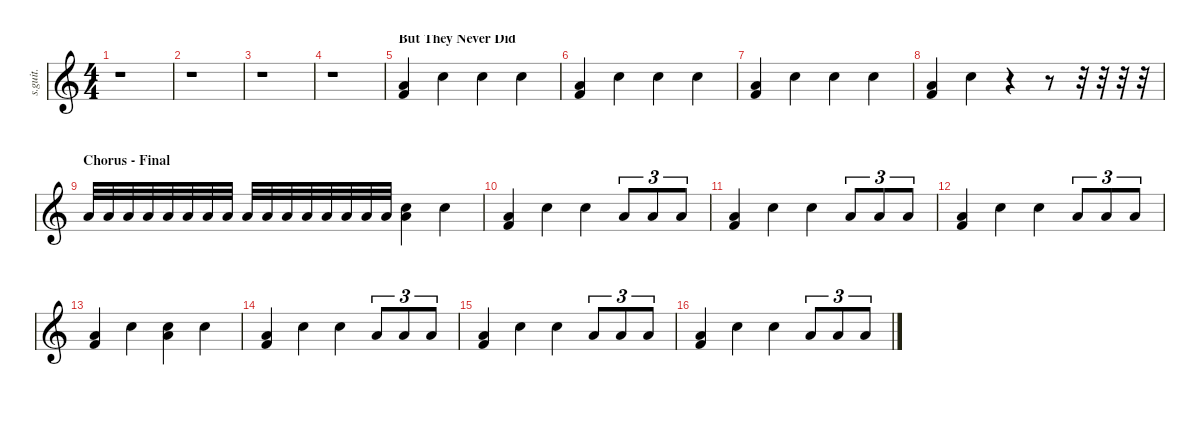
\defaultSystemsLayout 4
\hideDynamics
\bracketExtendMode nobrackets
\track ("Daniel Platzman - Drums" "s.guit.") {instrument percussion}
\staff {score}
\articulation defaults
\ts (4 4)
\tempo (125 hide)
\clef g2
\ks c
r.1{dy f} |
r.1 |
r.1 |
r.1 |
\section ("" "But They Never Did")
("Low Floor Tom (hit)" "Kick (hit) 2").4{lyrics (0 "") lyrics (1 "") lyrics (2 "") lyrics (3 "") lyrics (4 "")} "Hand Clap (hit)".4{lyrics (0 "") lyrics (1 "") lyrics (2 "") lyrics (3 "") lyrics (4 "")} "Electric Snare (hit)".4{lyrics (0 "") lyrics (1 "") lyrics (2 "") lyrics (3 "") lyrics (4 "")} "Hand Clap (hit)".4{lyrics (0 "") lyrics (1 "") lyrics (2 "") lyrics (3 "") lyrics (4 "")} |
("Low Floor Tom (hit)" "Kick (hit) 2").4{lyrics (0 "") lyrics (1 "") lyrics (2 "") lyrics (3 "") lyrics (4 "")} "Hand Clap (hit)".4{lyrics (0 "") lyrics (1 "") lyrics (2 "") lyrics (3 "") lyrics (4 "")} "Electric Snare (hit)".4{lyrics (0 "") lyrics (1 "") lyrics (2 "") lyrics (3 "") lyrics (4 "")} "Hand Clap (hit)".4{lyrics (0 "") lyrics (1 "") lyrics (2 "") lyrics (3 "") lyrics (4 "")} |
("Low Floor Tom (hit)" "Kick (hit) 2").4{lyrics (0 "") lyrics (1 "") lyrics (2 "") lyrics (3 "") lyrics (4 "")} "Hand Clap (hit)".4{lyrics (0 "") lyrics (1 "") lyrics (2 "") lyrics (3 "") lyrics (4 "")} "Electric Snare (hit)".4{lyrics (0 "") lyrics (1 "") lyrics (2 "") lyrics (3 "") lyrics (4 "")} "Hand Clap (hit)".4{lyrics (0 "") lyrics (1 "") lyrics (2 "") lyrics (3 "") lyrics (4 "")} |
("Low Floor Tom (hit)" "Kick (hit) 2").4{lyrics (0 "") lyrics (1 "") lyrics (2 "") lyrics (3 "") lyrics (4 "")} "Hand Clap (hit)".4{lyrics (0 "") lyrics (1 "") lyrics (2 "") lyrics (3 "") lyrics (4 "")} r.4 r.8 r.32 r.32 r.32 r.32 |
\section ("" "Chorus - Final")
"Low Floor Tom (hit)".32{lyrics (0 "") lyrics (1 "") lyrics (2 "") lyrics (3 "") lyrics (4 "") dy ppp} "Low Floor Tom (hit)".32{lyrics (0 "") lyrics (1 "") lyrics (2 "") lyrics (3 "") lyrics (4 "")} "Low Floor Tom (hit)".32{lyrics (0 "") lyrics (1 "") lyrics (2 "") lyrics (3 "") lyrics (4 "")} "Low Floor Tom (hit)".32{lyrics (0 "") lyrics (1 "") lyrics (2 "") lyrics (3 "") lyrics (4 "")} "Low Floor Tom (hit)".32{lyrics (0 "") lyrics (1 "") lyrics (2 "") lyrics (3 "") lyrics (4 "") dy pp} "Low Floor Tom (hit)".32{lyrics (0 "") lyrics (1 "") lyrics (2 "") lyrics (3 "") lyrics (4 "")} "Low Floor Tom (hit)".32{lyrics (0 "") lyrics (1 "") lyrics (2 "") lyrics (3 "") lyrics (4 "")} "Low Floor Tom (hit)".32{lyrics (0 "") lyrics (1 "") lyrics (2 "") lyrics (3 "") lyrics (4 "")} "Low Floor Tom (hit)".32{lyrics (0 "") lyrics (1 "") lyrics (2 "") lyrics (3 "") lyrics (4 "") dy p} "Low Floor Tom (hit)".32{lyrics (0 "") lyrics (1 "") lyrics (2 "") lyrics (3 "") lyrics (4 "")} "Low Floor Tom (hit)".32{lyrics (0 "") lyrics (1 "") lyrics (2 "") lyrics (3 "") lyrics (4 "") dy mp} "Low Floor Tom (hit)".32{lyrics (0 "") lyrics (1 "") lyrics (2 "") lyrics (3 "") lyrics (4 "")} "Low Floor Tom (hit)".32{lyrics (0 "") lyrics (1 "") lyrics (2 "") lyrics (3 "") lyrics (4 "") dy mf} "Low Floor Tom (hit)".32{lyrics (0 "") lyrics (1 "") lyrics (2 "") lyrics (3 "") lyrics (4 "") dy f} "Low Floor Tom (hit)".32{lyrics (0 "") lyrics (1 "") lyrics (2 "") lyrics (3 "") lyrics (4 "") dy ff} "Low Floor Tom (hit)".32{lyrics (0 "") lyrics (1 "") lyrics (2 "") lyrics (3 "") lyrics (4 "") dy fff} ("Low Floor Tom (hit)" "Electric Snare (hit)").4{lyrics (0 "") lyrics (1 "") lyrics (2 "") lyrics (3 "") lyrics (4 "")} "Hand Clap (hit)".4{lyrics (0 "") lyrics (1 "") lyrics (2 "") lyrics (3 "") lyrics (4 "")} |
("Low Floor Tom (hit)" "Kick (hit) 2").4{lyrics (0 "") lyrics (1 "") lyrics (2 "") lyrics (3 "") lyrics (4 "") dy f} "Hand Clap (hit)".4{lyrics (0 "") lyrics (1 "") lyrics (2 "") lyrics (3 "") lyrics (4 "")} "Electric Snare (hit)".4{lyrics (0 "") lyrics (1 "") lyrics (2 "") lyrics (3 "") lyrics (4 "")} "Low Floor Tom (hit)".8{tu (3 2) lyrics (0 "") lyrics (1 "") lyrics (2 "") lyrics (3 "") lyrics (4 "")} "Low Floor Tom (hit)".8{tu (3 2) lyrics (0 "") lyrics (1 "") lyrics (2 "") lyrics (3 "") lyrics (4 "")} "Low Floor Tom (hit)".8{tu (3 2) lyrics (0 "") lyrics (1 "") lyrics (2 "") lyrics (3 "") lyrics (4 "")} |
("Low Floor Tom (hit)" "Kick (hit) 2").4{lyrics (0 "") lyrics (1 "") lyrics (2 "") lyrics (3 "") lyrics (4 "")} "Hand Clap (hit)".4{lyrics (0 "") lyrics (1 "") lyrics (2 "") lyrics (3 "") lyrics (4 "")} "Electric Snare (hit)".4{lyrics (0 "") lyrics (1 "") lyrics (2 "") lyrics (3 "") lyrics (4 "")} "Low Floor Tom (hit)".8{tu (3 2) lyrics (0 "") lyrics (1 "") lyrics (2 "") lyrics (3 "") lyrics (4 "")} "Low Floor Tom (hit)".8{tu (3 2) lyrics (0 "") lyrics (1 "") lyrics (2 "") lyrics (3 "") lyrics (4 "")} "Low Floor Tom (hit)".8{tu (3 2) lyrics (0 "") lyrics (1 "") lyrics (2 "") lyrics (3 "") lyrics (4 "")} |
("Low Floor Tom (hit)" "Kick (hit) 2").4{lyrics (0 "") lyrics (1 "") lyrics (2 "") lyrics (3 "") lyrics (4 "")} "Hand Clap (hit)".4{lyrics (0 "") lyrics (1 "") lyrics (2 "") lyrics (3 "") lyrics (4 "")} "Electric Snare (hit)".4{lyrics (0 "") lyrics (1 "") lyrics (2 "") lyrics (3 "") lyrics (4 "")} "Low Floor Tom (hit)".8{tu (3 2) lyrics (0 "") lyrics (1 "") lyrics (2 "") lyrics (3 "") lyrics (4 "")} "Low Floor Tom (hit)".8{tu (3 2) lyrics (0 "") lyrics (1 "") lyrics (2 "") lyrics (3 "") lyrics (4 "")} "Low Floor Tom (hit)".8{tu (3 2) lyrics (0 "") lyrics (1 "") lyrics (2 "") lyrics (3 "") lyrics (4 "")} |
("Low Floor Tom (hit)" "Kick (hit) 2").4{lyrics (0 "") lyrics (1 "") lyrics (2 "") lyrics (3 "") lyrics (4 "")} "Hand Clap (hit)".4{lyrics (0 "") lyrics (1 "") lyrics (2 "") lyrics (3 "") lyrics (4 "")} ("Low Floor Tom (hit)" "Electric Snare (hit)").4{lyrics (0 "") lyrics (1 "") lyrics (2 "") lyrics (3 "") lyrics (4 "")} "Hand Clap (hit)".4{lyrics (0 "") lyrics (1 "") lyrics (2 "") lyrics (3 "") lyrics (4 "")} |
("Low Floor Tom (hit)" "Kick (hit) 2").4{lyrics (0 "") lyrics (1 "") lyrics (2 "") lyrics (3 "") lyrics (4 "")} "Hand Clap (hit)".4{lyrics (0 "") lyrics (1 "") lyrics (2 "") lyrics (3 "") lyrics (4 "")} "Electric Snare (hit)".4{lyrics (0 "") lyrics (1 "") lyrics (2 "") lyrics (3 "") lyrics (4 "")} "Low Floor Tom (hit)".8{tu (3 2) lyrics (0 "") lyrics (1 "") lyrics (2 "") lyrics (3 "") lyrics (4 "")} "Low Floor Tom (hit)".8{tu (3 2) lyrics (0 "") lyrics (1 "") lyrics (2 "") lyrics (3 "") lyrics (4 "")} "Low Floor Tom (hit)".8{tu (3 2) lyrics (0 "") lyrics (1 "") lyrics (2 "") lyrics (3 "") lyrics (4 "")} |
("Low Floor Tom (hit)" "Kick (hit) 2").4{lyrics (0 "") lyrics (1 "") lyrics (2 "") lyrics (3 "") lyrics (4 "")} "Hand Clap (hit)".4{lyrics (0 "") lyrics (1 "") lyrics (2 "") lyrics (3 "") lyrics (4 "")} "Electric Snare (hit)".4{lyrics (0 "") lyrics (1 "") lyrics (2 "") lyrics (3 "") lyrics (4 "")} "Low Floor Tom (hit)".8{tu (3 2) lyrics (0 "") lyrics (1 "") lyrics (2 "") lyrics (3 "") lyrics (4 "")} "Low Floor Tom (hit)".8{tu (3 2) lyrics (0 "") lyrics (1 "") lyrics (2 "") lyrics (3 "") lyrics (4 "")} "Low Floor Tom (hit)".8{tu (3 2) lyrics (0 "") lyrics (1 "") lyrics (2 "") lyrics (3 "") lyrics (4 "")} |
("Low Floor Tom (hit)" "Kick (hit) 2").4{lyrics (0 "") lyrics (1 "") lyrics (2 "") lyrics (3 "") lyrics (4 "")} "Hand Clap (hit)".4{lyrics (0 "") lyrics (1 "") lyrics (2 "") lyrics (3 "") lyrics (4 "")} "Electric Snare (hit)".4{lyrics (0 "") lyrics (1 "") lyrics (2 "") lyrics (3 "") lyrics (4 "")} "Low Floor Tom (hit)".8{tu (3 2) lyrics (0 "") lyrics (1 "") lyrics (2 "") lyrics (3 "") lyrics (4 "")} "Low Floor Tom (hit)".8{tu (3 2) lyrics (0 "") lyrics (1 "") lyrics (2 "") lyrics (3 "") lyrics (4 "")} "Low Floor Tom (hit)".8{tu (3 2) lyrics (0 "") lyrics (1 "") lyrics (2 "") lyrics (3 "") lyrics (4 "")}
